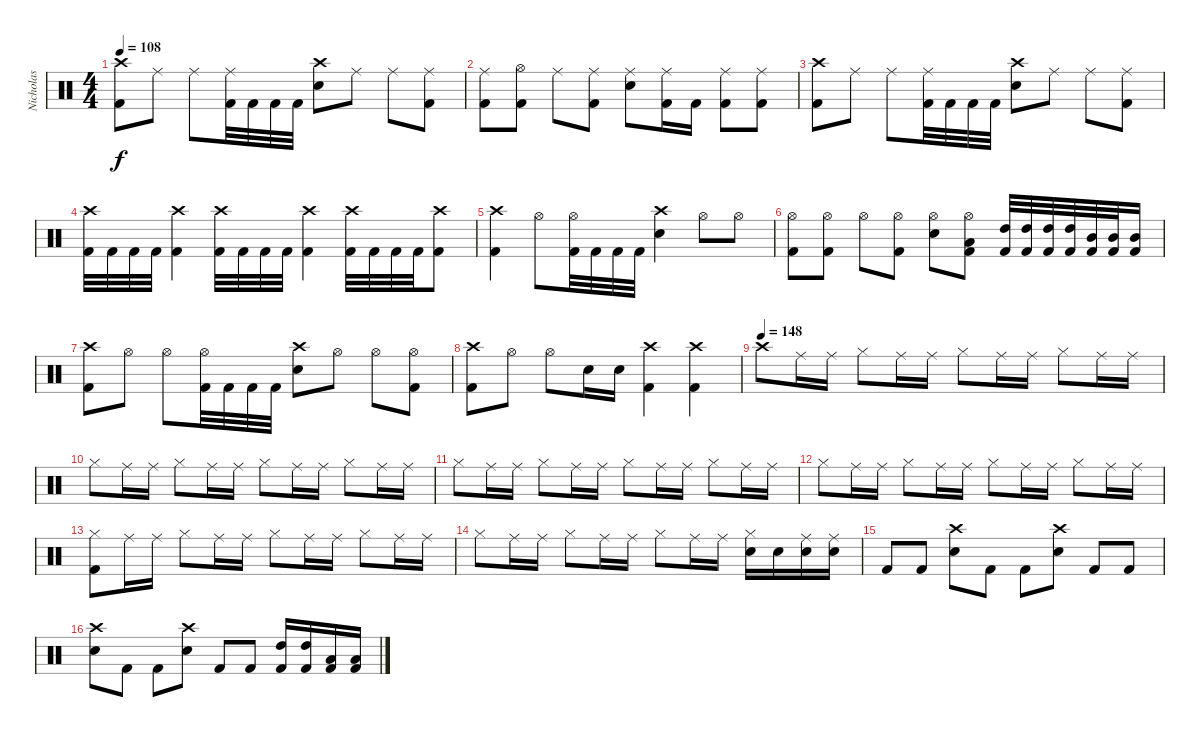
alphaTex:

\track ("Nicholas" "Nicholas") {instrument percussion}
\staff {score}
\articulation defaults
\ts (4 4)
\tempo 108
\clef neutral
\ks c
("Kick (hit) 2" "Crash high (hit)").8{dy f} "Ride (middle)".8 "Ride (middle)".8 ("Kick (hit) 2" "Ride (middle)").32 "Kick (hit) 2".32 "Kick (hit) 2".32 "Kick (hit) 2".32 ("Snare (hit) 2" "Crash high (hit)").8 "Ride (middle)".8 "Ride (middle)".8 ("Kick (hit) 2" "Ride (middle)").8 |
("Kick (hit) 2" "Ride (middle)").8 ("Kick (hit) 2" "Hi-Hat (open)").8 "Ride (middle)".8 ("Kick (hit) 2" "Ride (middle)").8 ("Snare (hit) 2" "Ride (middle)").8 ("Kick (hit) 2" "Ride (middle)").16 "Kick (hit) 2".16 ("Kick (hit) 2" "Ride (middle)").8 ("Kick (hit) 2" "Ride (middle)").8 |
("Kick (hit) 2" "Crash high (hit)").8 "Ride (middle)".8 "Ride (middle)".8 ("Kick (hit) 2" "Ride (middle)").32 "Kick (hit) 2".32 "Kick (hit) 2".32 "Kick (hit) 2".32 ("Snare (hit) 2" "Crash high (hit)").8 "Ride (middle)".8 "Ride (middle)".8 ("Kick (hit) 2" "Ride (middle)").8 |
("Kick (hit) 2" "Crash high (hit)").32 "Kick (hit) 2".32 "Kick (hit) 2".32 "Kick (hit) 2".32 ("Kick (hit) 2" "Crash high (hit)").4 ("Kick (hit) 2" "Crash high (hit)").32 "Kick (hit) 2".32 "Kick (hit) 2".32 "Kick (hit) 2".32 ("Kick (hit) 2" "Crash high (hit)").4 ("Kick (hit) 2" "Crash high (hit)").32 "Kick (hit) 2".32 "Kick (hit) 2".32 "Kick (hit) 2".32 ("Kick (hit) 2" "Crash high (hit)").8 |
("Kick (hit) 2" "Crash high (hit)").4 "Hi-Hat (open)".8 ("Kick (hit) 2" "Hi-Hat (open)").32 "Kick (hit) 2".32 "Kick (hit) 2".32 "Kick (hit) 2".32 ("Snare (hit) 2" "Crash high (hit)").4 "Hi-Hat (open)".8 "Hi-Hat (open)".8 |
("Kick (hit) 2" "Hi-Hat (open)").8 ("Kick (hit) 2" "Hi-Hat (open)").8 "Hi-Hat (open)".8 ("Kick (hit) 2" "Hi-Hat (open)").8 ("Snare (hit) 2" "Hi-Hat (open)").8 ("Kick (hit) 2" "Low Tom (hit)" "Hi-Hat (open)").8 ("Kick (hit) 2" "High Tom (hit)").32 ("Kick (hit) 2" "High Tom (hit)").32 ("Kick (hit) 2" "High Tom (hit)").32 ("Kick (hit) 2" "High Tom (hit)").32 ("Kick (hit) 2" "Mid Tom (hit)").32 ("Kick (hit) 2" "Mid Tom (hit)").32 ("Kick (hit) 2" "Mid Tom (hit)").16 |
("Kick (hit) 2" "Crash high (hit)").8 "Hi-Hat (open)".8 "Hi-Hat (open)".8 ("Kick (hit) 2" "Hi-Hat (open)").32 "Kick (hit) 2".32 "Kick (hit) 2".32 "Kick (hit) 2".32 ("Snare (hit) 2" "Crash high (hit)").8 "Hi-Hat (open)".8 "Hi-Hat (open)".8 ("Kick (hit) 2" "Hi-Hat (open)").8 |
("Kick (hit) 2" "Crash high (hit)").8 "Hi-Hat (open)".8 "Hi-Hat (open)".8 "Snare (hit) 2".16 "Snare (hit) 2".16 ("Kick (hit) 2" "Crash high (hit)").4 ("Kick (hit) 2" "Crash high (hit)").4 |
\tempo (148)
"Crash high (hit)".8 "Ride (middle)".16 "Ride (middle)".16 "Hi-Hat (closed)".8 "Ride (middle)".16 "Ride (middle)".16 "Hi-Hat (closed)".8 "Ride (middle)".16 "Ride (middle)".16 "Hi-Hat (closed)".8 "Ride (middle)".16 "Ride (middle)".16 |
"Hi-Hat (closed)".8 "Ride (middle)".16 "Ride (middle)".16 "Hi-Hat (closed)".8 "Ride (middle)".16 "Ride (middle)".16 "Hi-Hat (closed)".8 "Ride (middle)".16 "Ride (middle)".16 "Hi-Hat (closed)".8 "Ride (middle)".16 "Ride (middle)".16 |
"Hi-Hat (closed)".8 "Ride (middle)".16 "Ride (middle)".16 "Hi-Hat (closed)".8 "Ride (middle)".16 "Ride (middle)".16 "Hi-Hat (closed)".8 "Ride (middle)".16 "Ride (middle)".16 "Hi-Hat (closed)".8 "Ride (middle)".16 "Ride (middle)".16 |
"Hi-Hat (closed)".8 "Ride (middle)".16 "Ride (middle)".16 "Hi-Hat (closed)".8 "Ride (middle)".16 "Ride (middle)".16 "Hi-Hat (closed)".8 "Ride (middle)".16 "Ride (middle)".16 "Hi-Hat (closed)".8 "Ride (middle)".16 "Ride (middle)".16 |
("Kick (hit) 2" "Hi-Hat (closed)").8 "Ride (middle)".16 "Ride (middle)".16 "Hi-Hat (closed)".8 "Ride (middle)".16 "Ride (middle)".16 "Hi-Hat (closed)".8 "Ride (middle)".16 "Ride (middle)".16 "Hi-Hat (closed)".8 "Ride (middle)".16 "Ride (middle)".16 |
"Hi-Hat (closed)".8 "Ride (middle)".16 "Ride (middle)".16 "Hi-Hat (closed)".8 "Ride (middle)".16 "Ride (middle)".16 "Hi-Hat (closed)".8 "Ride (middle)".16 "Ride (middle)".16 ("Snare (hit) 2" "Hi-Hat (closed)").16 "Snare (hit) 2".16 ("Snare (hit) 2" "Ride (middle)").16 ("Snare (hit) 2" "Ride (middle)").16 |
"Kick (hit) 2".8 "Kick (hit) 2".8 ("Snare (hit) 2" "Crash high (hit)").8 "Kick (hit) 2".8 "Kick (hit) 2".8 ("Snare (hit) 2" "Crash high (hit)").8 "Kick (hit) 2".8 "Kick (hit) 2".8 |
("Snare (hit) 2" "Crash high (hit)").8 "Kick (hit) 2".8 "Kick (hit) 2".8 ("Snare (hit) 2" "Crash high (hit)").8 "Kick (hit) 2".8 "Kick (hit) 2".8 ("Kick (hit) 2" "High Tom (hit)").16 ("Kick (hit) 2" "High Tom (hit)").16 ("Kick (hit) 2" "Low Tom (hit)").16 ("Kick (hit) 2" "Low Tom (hit)").16
